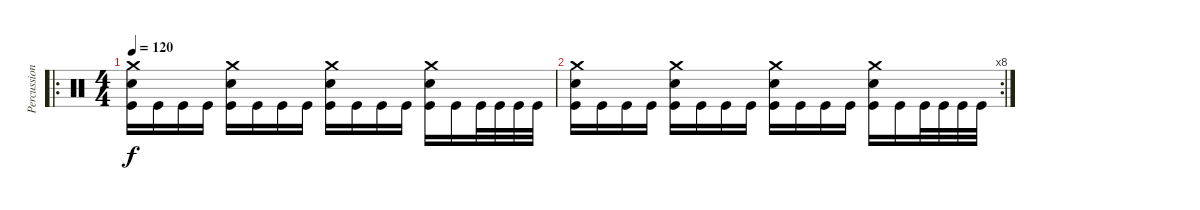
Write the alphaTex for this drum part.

\track ("Percussion" "Percussion") {instrument percussion}
\staff {score}
\articulation defaults
\ro
\ts (4 4)
\tempo 120
\clef neutral
\ks c
("Crash medium (hit)" "Snare (hit) 2" "Kick (hit)").16{dy f} "Kick (hit)".16 "Kick (hit)".16 "Kick (hit)".16 ("Crash medium (hit)" "Snare (hit) 2" "Kick (hit)").16 "Kick (hit)".16 "Kick (hit)".16 "Kick (hit)".16 ("Crash medium (hit)" "Snare (hit) 2" "Kick (hit)").16 "Kick (hit)".16 "Kick (hit)".16 "Kick (hit)".16 ("Crash medium (hit)" "Snare (hit) 2" "Kick (hit)").16 "Kick (hit)".16 "Kick (hit)".32 "Kick (hit)".32 "Kick (hit)".32 "Kick (hit)".32 |
\rc 8
("Crash medium (hit)" "Snare (hit) 2" "Kick (hit)").16 "Kick (hit)".16 "Kick (hit)".16 "Kick (hit)".16 ("Crash medium (hit)" "Snare (hit) 2" "Kick (hit)").16 "Kick (hit)".16 "Kick (hit)".16 "Kick (hit)".16 ("Crash medium (hit)" "Snare (hit) 2" "Kick (hit)").16 "Kick (hit)".16 "Kick (hit)".16 "Kick (hit)".16 ("Crash medium (hit)" "Snare (hit) 2" "Kick (hit)").16 "Kick (hit)".16 "Kick (hit)".32 "Kick (hit)".32 "Kick (hit)".32 "Kick (hit)".32
